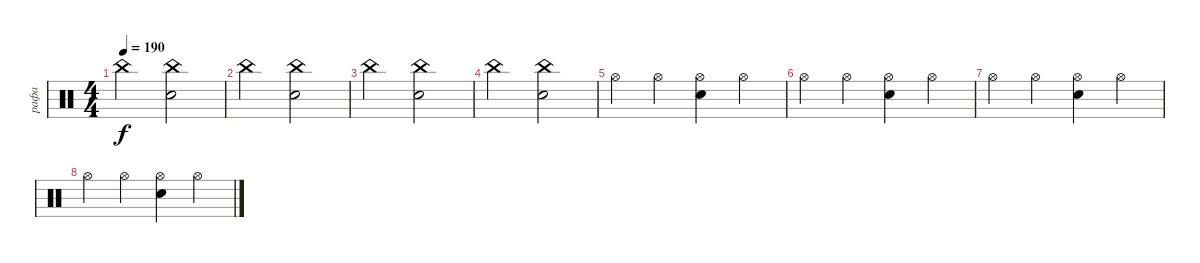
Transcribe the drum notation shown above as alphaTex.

\track ("рафа" "рафа") {instrument percussion}
\staff {score}
\articulation defaults
\ts (4 4)
\tempo 190
\clef neutral
\ks c "China (hit)".2{dy f}
("China (hit)" "Snare (hit) 2").2 |
"China (hit)".2 ("China (hit)" "Snare (hit) 2").2 |
"China (hit)".2 ("China (hit)" "Snare (hit) 2").2 |
"China (hit)".2 ("China (hit)" "Snare (hit) 2").2 |
"Hi-Hat (open)".4 "Hi-Hat (open)".4 ("Snare (hit) 2" "Hi-Hat (open)").4 "Hi-Hat (open)".4 |
"Hi-Hat (open)".4 "Hi-Hat (open)".4 ("Snare (hit) 2" "Hi-Hat (open)").4 "Hi-Hat (open)".4 |
"Hi-Hat (open)".4 "Hi-Hat (open)".4 ("Snare (hit) 2" "Hi-Hat (open)").4 "Hi-Hat (open)".4 |
"Hi-Hat (open)".4 "Hi-Hat (open)".4 ("Snare (hit) 2" "Hi-Hat (open)").4 "Hi-Hat (open)".4
